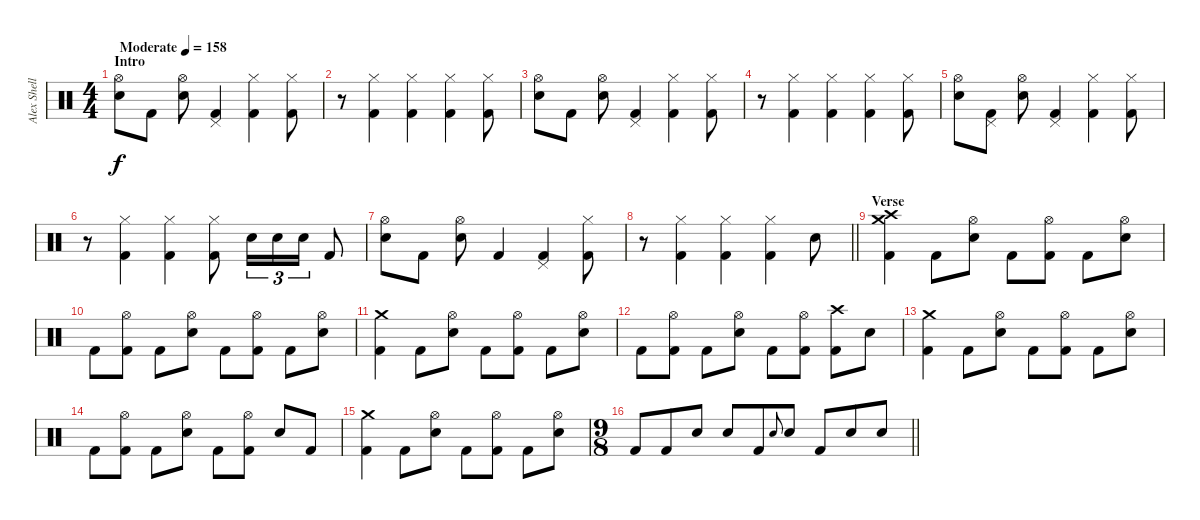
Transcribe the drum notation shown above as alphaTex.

\track ("Alex Shellnut" "Alex Shell") {instrument percussion}
\staff {score}
\articulation defaults
\ts (4 4)
\section ("" "Intro")
\tempo (158 "Moderate")
\clef neutral
\ks c
("Hi-Hat (open)" "Snare (hit) 2").8{dy f} "Kick (hit) 2".8 ("Hi-Hat (open)" "Snare (hit) 2").8 ("Pedal Hi-Hat (hit)" "Kick (hit) 2").4 ("Hi-Hat (closed)" "Kick (hit) 2").4 ("Hi-Hat (closed)" "Kick (hit) 2").8 |
r.8 ("Hi-Hat (closed)" "Kick (hit) 2").4 ("Hi-Hat (closed)" "Kick (hit) 2").4 ("Hi-Hat (closed)" "Kick (hit) 2").4 ("Hi-Hat (closed)" "Kick (hit) 2").8 |
("Hi-Hat (open)" "Snare (hit) 2").8 "Kick (hit) 2".8 ("Hi-Hat (open)" "Snare (hit) 2").8 ("Pedal Hi-Hat (hit)" "Kick (hit) 2").4 ("Hi-Hat (closed)" "Kick (hit) 2").4 ("Hi-Hat (closed)" "Kick (hit) 2").8 |
r.8 ("Hi-Hat (closed)" "Kick (hit) 2").4 ("Hi-Hat (closed)" "Kick (hit) 2").4 ("Hi-Hat (closed)" "Kick (hit) 2").4 ("Hi-Hat (closed)" "Kick (hit) 2").8 |
("Hi-Hat (open)" "Snare (hit) 2").8 ("Pedal Hi-Hat (hit)" "Kick (hit) 2").8 ("Hi-Hat (open)" "Snare (hit) 2").8 ("Pedal Hi-Hat (hit)" "Kick (hit) 2").4 ("Hi-Hat (closed)" "Kick (hit) 2").4 ("Hi-Hat (closed)" "Kick (hit) 2").8 |
r.8 ("Hi-Hat (closed)" "Kick (hit) 2").4 ("Hi-Hat (closed)" "Kick (hit) 2").4 ("Hi-Hat (closed)" "Kick (hit) 2").8 "Snare (hit) 2".16{tu (3 2)} "Snare (hit) 2".16{tu (3 2)} "Snare (hit) 2".16{tu (3 2)} "Kick (hit) 2".8 |
("Hi-Hat (open)" "Snare (hit) 2").8 "Kick (hit) 2".8 ("Hi-Hat (open)" "Snare (hit) 2").8 "Kick (hit) 2".4 ("Pedal Hi-Hat (hit)" "Kick (hit) 2").4 ("Hi-Hat (closed)" "Kick (hit) 2").8 |
\barLineRight lightlight
r.8 ("Hi-Hat (closed)" "Kick (hit) 2").4 ("Hi-Hat (closed)" "Kick (hit) 2").4 ("Hi-Hat (closed)" "Kick (hit) 2").4 "Snare (hit) 2".8 |
\section ("" "Verse")
("Crash medium (hit)" "Crash high (hit)" "Kick (hit) 2").4 "Kick (hit) 2".8 ("Hi-Hat (open)" "Electric Snare (hit)").8 "Kick (hit) 2".8 ("Hi-Hat (open)" "Kick (hit) 2").8 "Kick (hit) 2".8 ("Hi-Hat (open)" "Electric Snare (hit)").8 |
"Kick (hit) 2".8 ("Hi-Hat (open)" "Kick (hit) 2").8 "Kick (hit) 2".8 ("Hi-Hat (open)" "Electric Snare (hit)").8 "Kick (hit) 2".8 ("Hi-Hat (open)" "Kick (hit) 2").8 "Kick (hit) 2".8 ("Hi-Hat (open)" "Electric Snare (hit)").8 |
("Crash medium (hit)" "Kick (hit) 2").4 "Kick (hit) 2".8 ("Hi-Hat (open)" "Electric Snare (hit)").8 "Kick (hit) 2".8 ("Hi-Hat (open)" "Kick (hit) 2").8 "Kick (hit) 2".8 ("Hi-Hat (open)" "Electric Snare (hit)").8 |
"Kick (hit) 2".8 ("Hi-Hat (open)" "Kick (hit) 2").8 "Kick (hit) 2".8 ("Hi-Hat (open)" "Electric Snare (hit)").8 "Kick (hit) 2".8 ("Hi-Hat (open)" "Kick (hit) 2").8 ("Crash high (hit)" "Kick (hit) 2").8 "Electric Snare (hit)".8 |
("Crash medium (hit)" "Kick (hit) 2").4 "Kick (hit) 2".8 ("Hi-Hat (open)" "Electric Snare (hit)").8 "Kick (hit) 2".8 ("Hi-Hat (open)" "Kick (hit) 2").8 "Kick (hit) 2".8 ("Hi-Hat (open)" "Electric Snare (hit)").8 |
"Kick (hit) 2".8 ("Hi-Hat (open)" "Kick (hit) 2").8 "Kick (hit) 2".8 ("Hi-Hat (open)" "Electric Snare (hit)").8 "Kick (hit) 2".8 ("Hi-Hat (open)" "Kick (hit) 2").8 "Electric Snare (hit)".8 "Kick (hit) 2".8 |
("Crash medium (hit)" "Kick (hit) 2").4 "Kick (hit) 2".8 ("Hi-Hat (open)" "Electric Snare (hit)").8 "Kick (hit) 2".8 ("Hi-Hat (open)" "Kick (hit) 2").8 "Kick (hit) 2".8 ("Hi-Hat (open)" "Electric Snare (hit)").8 |
\ts (9 8)
\barLineRight lightlight "Kick (hit) 2".8 "Kick (hit) 2".8 "Electric Snare (hit)".8 "Electric Snare (hit)".8 "Kick (hit) 2".8 "Electric Snare (hit)".8{gr onbeat} "Electric Snare (hit)".8 "Kick (hit) 2".8 "Electric Snare (hit)".8 "Electric Snare (hit)".8
